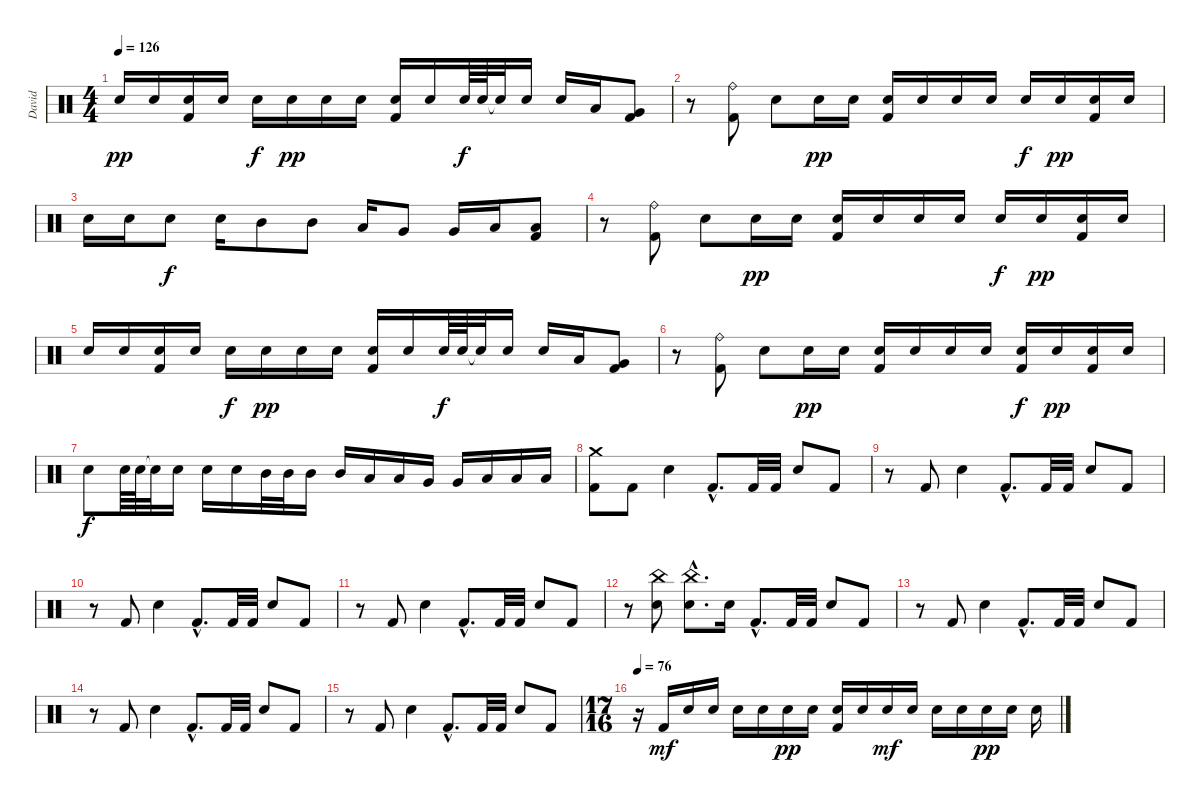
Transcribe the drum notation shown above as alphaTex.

\track ("David" "David") {instrument percussion}
\staff {score}
\articulation defaults
\ts (4 4)
\tempo 126
\clef neutral
\ks c "Snare (hit) 2".16{dy pp} "Snare (hit) 2".16
("Snare (hit) 2" "Kick (hit) 2").16 "Snare (hit) 2".16 "Snare (hit) 2".16{dy f} "Snare (hit) 2".16{dy pp} "Snare (hit) 2".16 "Snare (hit) 2".16 ("Snare (hit) 2" "Kick (hit) 2").16 "Snare (hit) 2".16 "Snare (hit) 2".64{dy f} "Snare (hit) 2".64 "Snare (hit) 2"{t}.32 "Snare (hit) 2".16 "Snare (hit) 2".16 "Low Tom (hit)".16 ("Very Low Tom (hit)" "Kick (hit) 2").8 |
r.8 ("Ride (bell)" "Kick (hit) 2").8 "Snare (hit) 2".8 "Snare (hit) 2".16{dy pp} "Snare (hit) 2".16 ("Snare (hit) 2" "Kick (hit) 2").16 "Snare (hit) 2".16 "Snare (hit) 2".16 "Snare (hit) 2".16 "Snare (hit) 2".16{dy f} "Snare (hit) 2".16{dy pp} ("Snare (hit) 2" "Kick (hit) 2").16 "Snare (hit) 2".16 |
"Snare (hit) 2".16 "Snare (hit) 2".16 "Snare (hit) 2".8{dy f} "Snare (hit) 2".16 "Mid Tom (hit)".8 "Mid Tom (hit)".8 "Low Tom (hit)".16 "Very Low Tom (hit)".8 "Very Low Tom (hit)".16 "Low Floor Tom (hit)".16 ("Low Floor Tom (hit)" "Kick (hit) 2").8 |
r.8 ("Ride (bell)" "Kick (hit) 2").8 "Snare (hit) 2".8 "Snare (hit) 2".16{dy pp} "Snare (hit) 2".16 ("Snare (hit) 2" "Kick (hit) 2").16 "Snare (hit) 2".16 "Snare (hit) 2".16 "Snare (hit) 2".16 "Snare (hit) 2".16{dy f} "Snare (hit) 2".16{dy pp} ("Snare (hit) 2" "Kick (hit) 2").16 "Snare (hit) 2".16 |
"Snare (hit) 2".16 "Snare (hit) 2".16 ("Snare (hit) 2" "Kick (hit) 2").16 "Snare (hit) 2".16 "Snare (hit) 2".16{dy f} "Snare (hit) 2".16{dy pp} "Snare (hit) 2".16 "Snare (hit) 2".16 ("Snare (hit) 2" "Kick (hit) 2").16 "Snare (hit) 2".16 "Snare (hit) 2".64{dy f} "Snare (hit) 2".64 "Snare (hit)"{t}.32 "Snare (hit) 2".16 "Snare (hit) 2".16 "Low Tom (hit)".16 ("Very Low Tom (hit)" "Kick (hit) 2").8 |
r.8 ("Ride (bell)" "Kick (hit) 2").8 "Snare (hit) 2".8 "Snare (hit) 2".16{dy pp} "Snare (hit) 2".16 ("Snare (hit) 2" "Kick (hit) 2").16 "Snare (hit) 2".16 "Snare (hit) 2".16 "Snare (hit) 2".16 ("Snare (hit) 2" "Kick (hit) 2").16{dy f} "Snare (hit) 2".16{dy pp} ("Snare (hit) 2" "Kick (hit) 2").16 "Snare (hit) 2".16 |
"Snare (hit) 2".8{dy f} "Snare (hit) 2".64 "Snare (hit) 2".64 "Snare (hit)"{t}.32 "Snare (hit) 2".16 "Snare (hit) 2".16 "Snare (hit) 2".16 "Mid Tom (hit)".32 "Mid Tom (hit)".32 "Mid Tom (hit)".16 "Mid Tom (hit)".16 "Low Tom (hit)".16 "Low Tom (hit)".16 "Very Low Tom (hit)".16 "Very Low Tom (hit)".16 "Low Floor Tom (hit)".16 "Low Floor Tom (hit)".16 "Low Floor Tom (hit)".16 |
("Crash medium (hit)" "Kick (hit) 2").8 "Kick (hit) 2".8 "Snare (hit) 2".4 "Kick (hit) 2"{hac}.8{d} "Kick (hit) 2".32 "Kick (hit) 2".32 "Snare (hit) 2".8 "Kick (hit) 2".8 |
r.8 "Kick (hit) 2".8 "Snare (hit) 2".4 "Kick (hit) 2"{hac}.8{d} "Kick (hit) 2".32 "Kick (hit) 2".32 "Snare (hit) 2".8 "Kick (hit) 2".8 |
r.8 "Kick (hit) 2".8 "Snare (hit) 2".4 "Kick (hit) 2"{hac}.8{d} "Kick (hit) 2".32 "Kick (hit) 2".32 "Snare (hit) 2".8 "Kick (hit) 2".8 |
r.8 "Kick (hit) 2".8 "Snare (hit) 2".4 "Kick (hit) 2"{hac}.8{d} "Kick (hit) 2".32 "Kick (hit) 2".32 "Snare (hit) 2".8 "Kick (hit) 2".8 |
r.8 ("China (hit)" "Snare (hit) 2").8 ("China (hit)"{hac} "Snare (hit) 2"{hac}).8{d} "Snare (hit) 2".16 "Kick (hit) 2"{hac}.8{d} "Kick (hit) 2".32 "Kick (hit) 2".32 "Snare (hit) 2".8 "Kick (hit) 2".8 |
r.8 "Kick (hit) 2".8 "Snare (hit) 2".4 "Kick (hit) 2"{hac}.8{d} "Kick (hit) 2".32 "Kick (hit) 2".32 "Snare (hit) 2".8 "Kick (hit) 2".8 |
r.8 "Kick (hit) 2".8 "Snare (hit) 2".4 "Kick (hit) 2"{hac}.8{d} "Kick (hit) 2".32 "Kick (hit) 2".32 "Snare (hit) 2".8 "Kick (hit) 2".8 |
r.8 "Kick (hit) 2".8 "Snare (hit) 2".4 "Kick (hit) 2"{hac}.8{d} "Kick (hit) 2".32 "Kick (hit) 2".32 "Snare (hit) 2".8 "Kick (hit) 2".8 |
\ts (17 16)
\tempo 76
r.16 "Kick (hit) 2".16{dy mf} "Snare (hit) 2".16 "Snare (hit) 2".16 "Snare (hit) 2".16 "Snare (hit) 2".16 "Snare (hit) 2".16{dy pp} "Snare (hit) 2".16 ("Snare (hit) 2" "Kick (hit) 2").16 "Snare (hit) 2".16 "Snare (hit) 2".16{dy mf} "Snare (hit) 2".16 "Snare (hit) 2".16 "Snare (hit) 2".16 "Snare (hit) 2".16{dy pp} "Snare (hit) 2".16 "Snare (hit) 2".16
